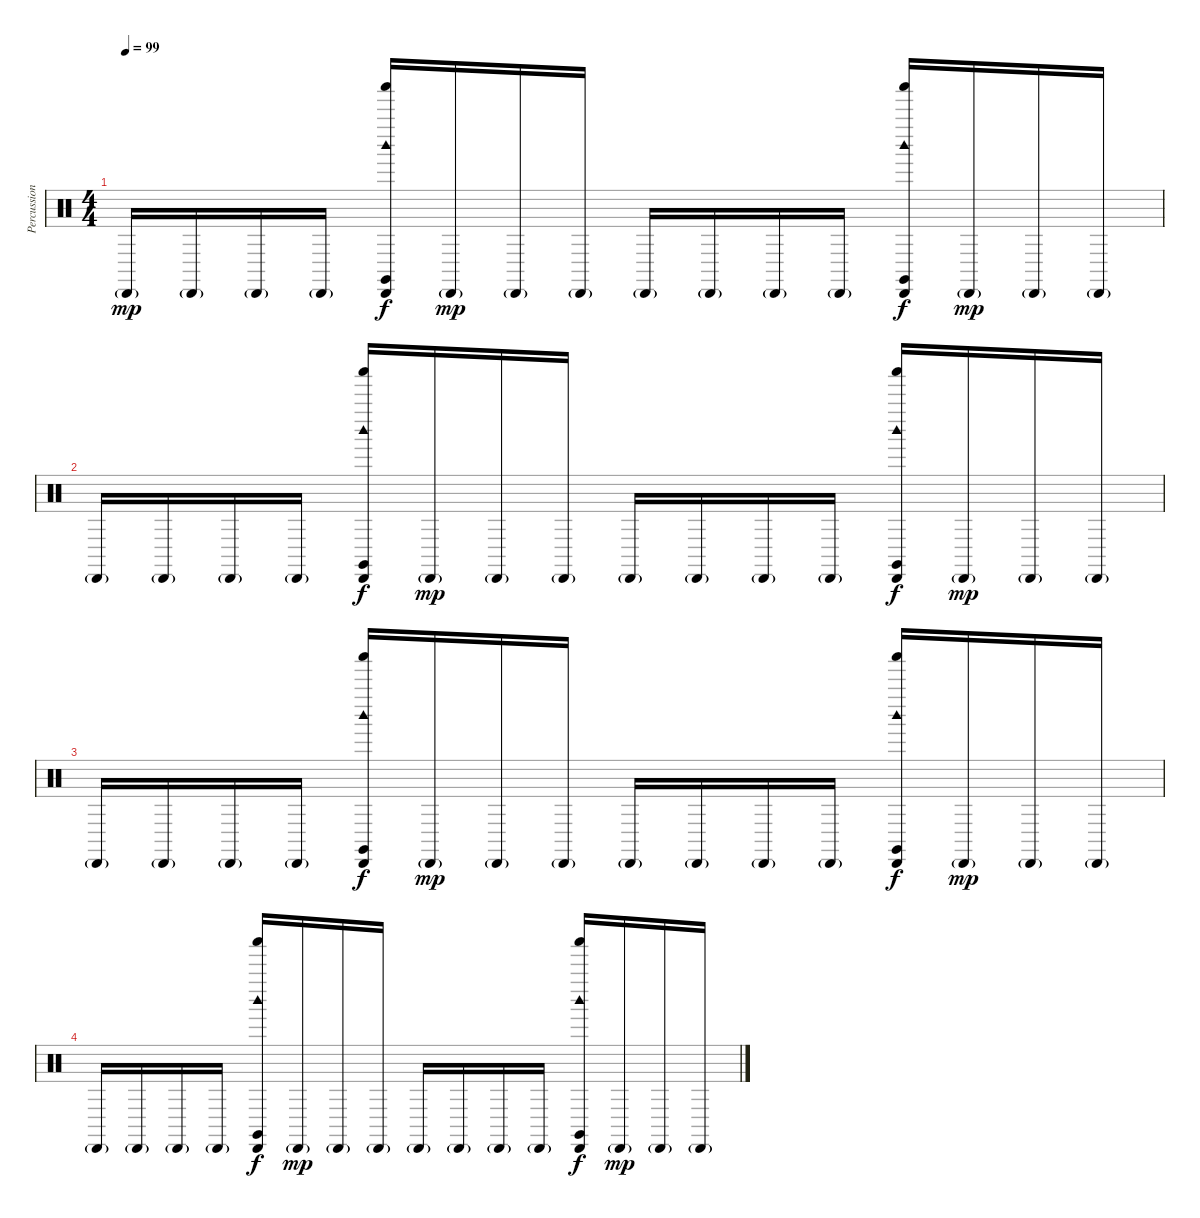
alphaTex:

\track ("Percussion" "Percussion") {instrument percussion}
\staff {score}
\articulation defaults
\ts (4 4)
\tempo 99
\clef neutral
\ks c "Cabasa (hit)"{g}.16{dy mp} "Cabasa (hit)"{g}.16 "Cabasa (hit)"{g}.16 "Cabasa (hit)"{g}.16
("Cabasa (hit)" "Shaker (hit)" "Claves (hit)" "Woodblock high (hit)").16{dy f} "Cabasa (hit)"{g}.16{dy mp} "Cabasa (hit)"{g}.16 "Cabasa (hit)"{g}.16 "Cabasa (hit)"{g}.16 "Cabasa (hit)"{g}.16 "Cabasa (hit)"{g}.16 "Cabasa (hit)"{g}.16 ("Cabasa (hit)" "Shaker (hit)" "Claves (hit)" "Woodblock high (hit)").16{dy f} "Cabasa (hit)"{g}.16{dy mp} "Cabasa (hit)"{g}.16 "Cabasa (hit)"{g}.16 |
"Cabasa (hit)"{g}.16 "Cabasa (hit)"{g}.16 "Cabasa (hit)"{g}.16 "Cabasa (hit)"{g}.16 ("Cabasa (hit)" "Shaker (hit)" "Claves (hit)" "Woodblock high (hit)").16{dy f} "Cabasa (hit)"{g}.16{dy mp} "Cabasa (hit)"{g}.16 "Cabasa (hit)"{g}.16 "Cabasa (hit)"{g}.16 "Cabasa (hit)"{g}.16 "Cabasa (hit)"{g}.16 "Cabasa (hit)"{g}.16 ("Cabasa (hit)" "Shaker (hit)" "Claves (hit)" "Woodblock high (hit)").16{dy f} "Cabasa (hit)"{g}.16{dy mp} "Cabasa (hit)"{g}.16 "Cabasa (hit)"{g}.16 |
"Cabasa (hit)"{g}.16 "Cabasa (hit)"{g}.16 "Cabasa (hit)"{g}.16 "Cabasa (hit)"{g}.16 ("Cabasa (hit)" "Shaker (hit)" "Claves (hit)" "Woodblock high (hit)").16{dy f} "Cabasa (hit)"{g}.16{dy mp} "Cabasa (hit)"{g}.16 "Cabasa (hit)"{g}.16 "Cabasa (hit)"{g}.16 "Cabasa (hit)"{g}.16 "Cabasa (hit)"{g}.16 "Cabasa (hit)"{g}.16 ("Cabasa (hit)" "Shaker (hit)" "Claves (hit)" "Woodblock high (hit)").16{dy f} "Cabasa (hit)"{g}.16{dy mp} "Cabasa (hit)"{g}.16 "Cabasa (hit)"{g}.16 |
"Cabasa (hit)"{g}.16 "Cabasa (hit)"{g}.16 "Cabasa (hit)"{g}.16 "Cabasa (hit)"{g}.16 ("Cabasa (hit)" "Shaker (hit)" "Claves (hit)" "Woodblock high (hit)").16{dy f} "Cabasa (hit)"{g}.16{dy mp} "Cabasa (hit)"{g}.16 "Cabasa (hit)"{g}.16 "Cabasa (hit)"{g}.16 "Cabasa (hit)"{g}.16 "Cabasa (hit)"{g}.16 "Cabasa (hit)"{g}.16 ("Cabasa (hit)" "Shaker (hit)" "Claves (hit)" "Woodblock high (hit)").16{dy f} "Cabasa (hit)"{g}.16{dy mp} "Cabasa (hit)"{g}.16 "Cabasa (hit)"{g}.16
